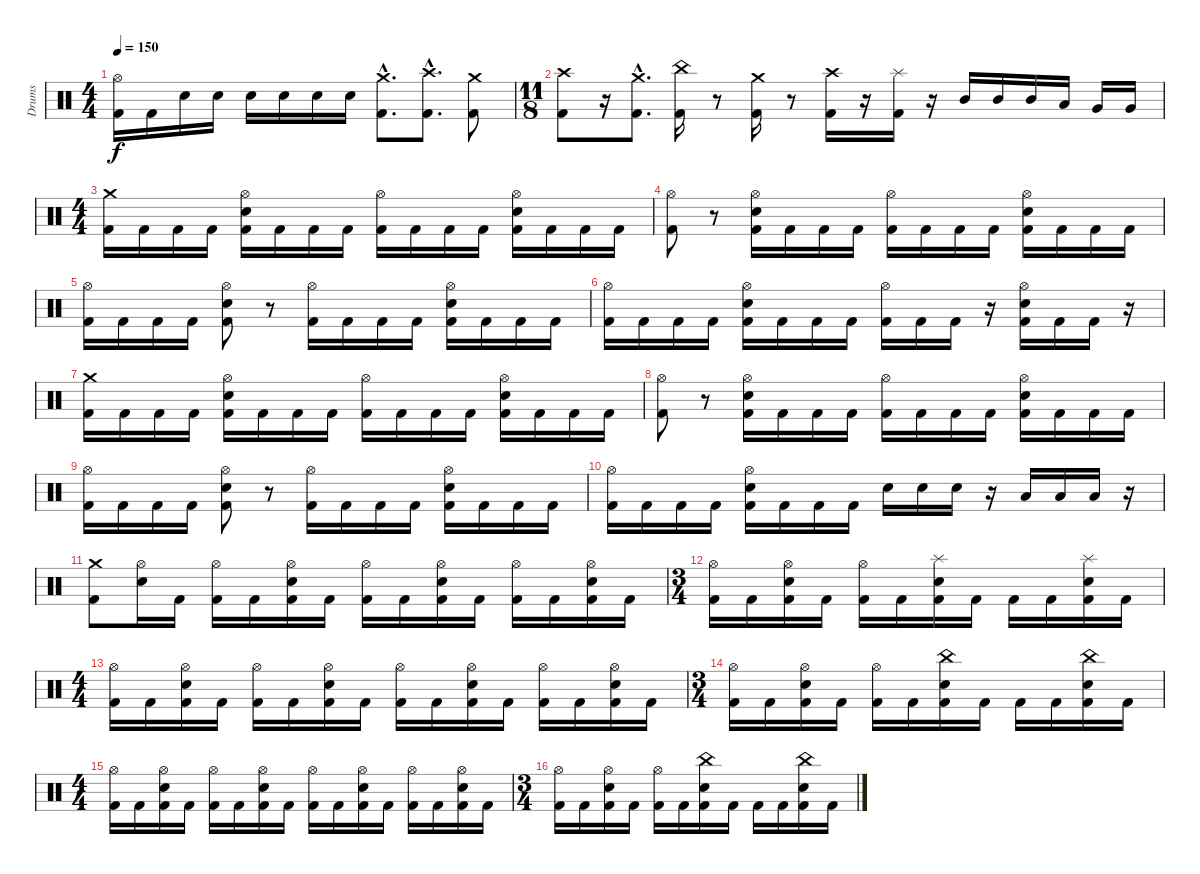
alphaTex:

\track ("Drums" "Drums") {instrument percussion}
\staff {score}
\articulation defaults
\ts (4 4)
\tempo 150
\clef neutral
\ks c
("Hi-Hat (open)" "Kick (hit) 2").16{dy f} "Kick (hit) 2".16 "Electric Snare (hit)".16 "Electric Snare (hit)".16 "Electric Snare (hit)".16 "Electric Snare (hit)".16 "Electric Snare (hit)".16 "Electric Snare (hit)".16 ("Crash medium (hit)" "Kick (hit) 2"{hac}).8{d} ("Crash high (hit)" "Kick (hit) 2"{hac}).8{d} ("Crash medium (hit)" "Kick (hit) 2").8 |
\ts (11 8)
("Crash high (hit)" "Kick (hit) 2").8 r.16 ("Crash medium (hit)" "Kick (hit) 2"{hac}).8{d} ("China (hit)" "Kick (hit) 2").16 r.8 ("Crash medium (hit)" "Kick (hit) 2").16 r.8 ("Crash high (hit)" "Kick (hit) 2").16 r.16 ("Splash (hit)" "Kick (hit) 2").16 r.16 "Mid Tom (hit)".16 "Mid Tom (hit)".16 "Mid Tom (hit)".16 "Low Tom (hit)".16 "Very Low Tom (hit)".16 "Very Low Tom (hit)".16 |
\ts (4 4)
("Crash medium (hit)" "Kick (hit) 2").16 "Kick (hit) 2".16 "Kick (hit) 2".16 "Kick (hit) 2".16 ("Hi-Hat (open)" "Electric Snare (hit)" "Kick (hit) 2").16 "Kick (hit) 2".16 "Kick (hit) 2".16 "Kick (hit) 2".16 ("Hi-Hat (open)" "Kick (hit) 2").16 "Kick (hit) 2".16 "Kick (hit) 2".16 "Kick (hit) 2".16 ("Hi-Hat (open)" "Electric Snare (hit)" "Kick (hit) 2").16 "Kick (hit) 2".16 "Kick (hit) 2".16 "Kick (hit) 2".16 |
("Hi-Hat (open)" "Kick (hit) 2").8 r.8 ("Electric Snare (hit)" "Hi-Hat (open)" "Kick (hit) 2").16 "Kick (hit) 2".16 "Kick (hit) 2".16 "Kick (hit) 2".16 ("Hi-Hat (open)" "Kick (hit) 2").16 "Kick (hit) 2".16 "Kick (hit) 2".16 "Kick (hit) 2".16 ("Electric Snare (hit)" "Hi-Hat (open)" "Kick (hit) 2").16 "Kick (hit) 2".16 "Kick (hit) 2".16 "Kick (hit) 2".16 |
("Hi-Hat (open)" "Kick (hit) 2").16 "Kick (hit) 2".16 "Kick (hit) 2".16 "Kick (hit) 2".16 ("Electric Snare (hit)" "Hi-Hat (open)" "Kick (hit) 2").8 r.8 ("Hi-Hat (open)" "Kick (hit) 2").16 "Kick (hit) 2".16 "Kick (hit) 2".16 "Kick (hit) 2".16 ("Hi-Hat (open)" "Electric Snare (hit)" "Kick (hit) 2").16 "Kick (hit) 2".16 "Kick (hit) 2".16 "Kick (hit) 2".16 |
("Hi-Hat (open)" "Kick (hit) 2").16 "Kick (hit) 2".16 "Kick (hit) 2".16 "Kick (hit) 2".16 ("Hi-Hat (open)" "Electric Snare (hit)" "Kick (hit) 2").16 "Kick (hit) 2".16 "Kick (hit) 2".16 "Kick (hit) 2".16 ("Hi-Hat (open)" "Kick (hit) 2").16 "Kick (hit) 2".16 "Kick (hit) 2".16 r.16 ("Electric Snare (hit)" "Hi-Hat (open)" "Kick (hit) 2").16 "Kick (hit) 2".16 "Kick (hit) 2".16 r.16 |
("Crash medium (hit)" "Kick (hit) 2").16 "Kick (hit) 2".16 "Kick (hit) 2".16 "Kick (hit) 2".16 ("Hi-Hat (open)" "Electric Snare (hit)" "Kick (hit) 2").16 "Kick (hit) 2".16 "Kick (hit) 2".16 "Kick (hit) 2".16 ("Hi-Hat (open)" "Kick (hit) 2").16 "Kick (hit) 2".16 "Kick (hit) 2".16 "Kick (hit) 2".16 ("Hi-Hat (open)" "Electric Snare (hit)" "Kick (hit) 2").16 "Kick (hit) 2".16 "Kick (hit) 2".16 "Kick (hit) 2".16 |
("Hi-Hat (open)" "Kick (hit) 2").8 r.8 ("Electric Snare (hit)" "Hi-Hat (open)" "Kick (hit) 2").16 "Kick (hit) 2".16 "Kick (hit) 2".16 "Kick (hit) 2".16 ("Hi-Hat (open)" "Kick (hit) 2").16 "Kick (hit) 2".16 "Kick (hit) 2".16 "Kick (hit) 2".16 ("Electric Snare (hit)" "Hi-Hat (open)" "Kick (hit) 2").16 "Kick (hit) 2".16 "Kick (hit) 2".16 "Kick (hit) 2".16 |
("Hi-Hat (open)" "Kick (hit) 2").16 "Kick (hit) 2".16 "Kick (hit) 2".16 "Kick (hit) 2".16 ("Electric Snare (hit)" "Hi-Hat (open)" "Kick (hit) 2").8 r.8 ("Hi-Hat (open)" "Kick (hit) 2").16 "Kick (hit) 2".16 "Kick (hit) 2".16 "Kick (hit) 2".16 ("Hi-Hat (open)" "Electric Snare (hit)" "Kick (hit) 2").16 "Kick (hit) 2".16 "Kick (hit) 2".16 "Kick (hit) 2".16 |
("Hi-Hat (open)" "Kick (hit) 2").16 "Kick (hit) 2".16 "Kick (hit) 2".16 "Kick (hit) 2".16 ("Hi-Hat (open)" "Electric Snare (hit)" "Kick (hit) 2").16 "Kick (hit) 2".16 "Kick (hit) 2".16 "Kick (hit) 2".16 "Electric Snare (hit)".16 "Electric Snare (hit)".16 "Electric Snare (hit)".16 r.16 "Low Tom (hit)".16 "Low Tom (hit)".16 "Low Tom (hit)".16 r.16 |
("Crash medium (hit)" "Kick (hit) 2").8 ("Hi-Hat (open)" "Electric Snare (hit)").16 "Kick (hit) 2".16 ("Hi-Hat (open)" "Kick (hit) 2").16 "Kick (hit) 2".16 ("Hi-Hat (open)" "Electric Snare (hit)" "Kick (hit) 2").16 "Kick (hit) 2".16 ("Hi-Hat (open)" "Kick (hit) 2").16 "Kick (hit) 2".16 ("Hi-Hat (open)" "Electric Snare (hit)" "Kick (hit) 2").16 "Kick (hit) 2".16 ("Hi-Hat (open)" "Kick (hit) 2").16 "Kick (hit) 2".16 ("Hi-Hat (open)" "Electric Snare (hit)" "Kick (hit) 2").16 "Kick (hit) 2".16 |
\ts (3 4)
("Hi-Hat (open)" "Kick (hit) 2").16 "Kick (hit) 2".16 ("Hi-Hat (open)" "Electric Snare (hit)" "Kick (hit) 2").16 "Kick (hit) 2".16 ("Hi-Hat (open)" "Kick (hit) 2").16 "Kick (hit) 2".16 ("Splash (hit)" "Electric Snare (hit)" "Kick (hit) 2").16 "Kick (hit) 2".16 "Kick (hit) 2".16 "Kick (hit) 2".16 ("Splash (hit)" "Electric Snare (hit)" "Kick (hit) 2").16 "Kick (hit) 2".16 |
\ts (4 4)
("Hi-Hat (open)" "Kick (hit) 2").16 "Kick (hit) 2".16 ("Kick (hit) 2" "Hi-Hat (open)" "Electric Snare (hit)").16 "Kick (hit) 2".16 ("Hi-Hat (open)" "Kick (hit) 2").16 "Kick (hit) 2".16 ("Hi-Hat (open)" "Electric Snare (hit)" "Kick (hit) 2").16 "Kick (hit) 2".16 ("Hi-Hat (open)" "Kick (hit) 2").16 "Kick (hit) 2".16 ("Hi-Hat (open)" "Electric Snare (hit)" "Kick (hit) 2").16 "Kick (hit) 2".16 ("Hi-Hat (open)" "Kick (hit) 2").16 "Kick (hit) 2".16 ("Hi-Hat (open)" "Electric Snare (hit)" "Kick (hit) 2").16 "Kick (hit) 2".16 |
\ts (3 4)
("Hi-Hat (open)" "Kick (hit) 2").16 "Kick (hit) 2".16 ("Hi-Hat (open)" "Electric Snare (hit)" "Kick (hit) 2").16 "Kick (hit) 2".16 ("Hi-Hat (open)" "Kick (hit) 2").16 "Kick (hit) 2".16 ("China (hit)" "Electric Snare (hit)" "Kick (hit) 2").16 "Kick (hit) 2".16 "Kick (hit) 2".16 "Kick (hit) 2".16 ("China (hit)" "Electric Snare (hit)" "Kick (hit) 2").16 "Kick (hit) 2".16 |
\ts (4 4)
("Hi-Hat (open)" "Kick (hit) 2").16 "Kick (hit) 2".16 ("Kick (hit) 2" "Hi-Hat (open)" "Electric Snare (hit)").16 "Kick (hit) 2".16 ("Hi-Hat (open)" "Kick (hit) 2").16 "Kick (hit) 2".16 ("Hi-Hat (open)" "Electric Snare (hit)" "Kick (hit) 2").16 "Kick (hit) 2".16 ("Hi-Hat (open)" "Kick (hit) 2").16 "Kick (hit) 2".16 ("Hi-Hat (open)" "Electric Snare (hit)" "Kick (hit) 2").16 "Kick (hit) 2".16 ("Hi-Hat (open)" "Kick (hit) 2").16 "Kick (hit) 2".16 ("Hi-Hat (open)" "Electric Snare (hit)" "Kick (hit) 2").16 "Kick (hit) 2".16 |
\ts (3 4)
("Hi-Hat (open)" "Kick (hit) 2").16 "Kick (hit) 2".16 ("Hi-Hat (open)" "Electric Snare (hit)" "Kick (hit) 2").16 "Kick (hit) 2".16 ("Hi-Hat (open)" "Kick (hit) 2").16 "Kick (hit) 2".16 ("China (hit)" "Electric Snare (hit)" "Kick (hit) 2").16 "Kick (hit) 2".16 "Kick (hit) 2".16 "Kick (hit) 2".16 ("China (hit)" "Electric Snare (hit)" "Kick (hit) 2").16 "Kick (hit) 2".16
